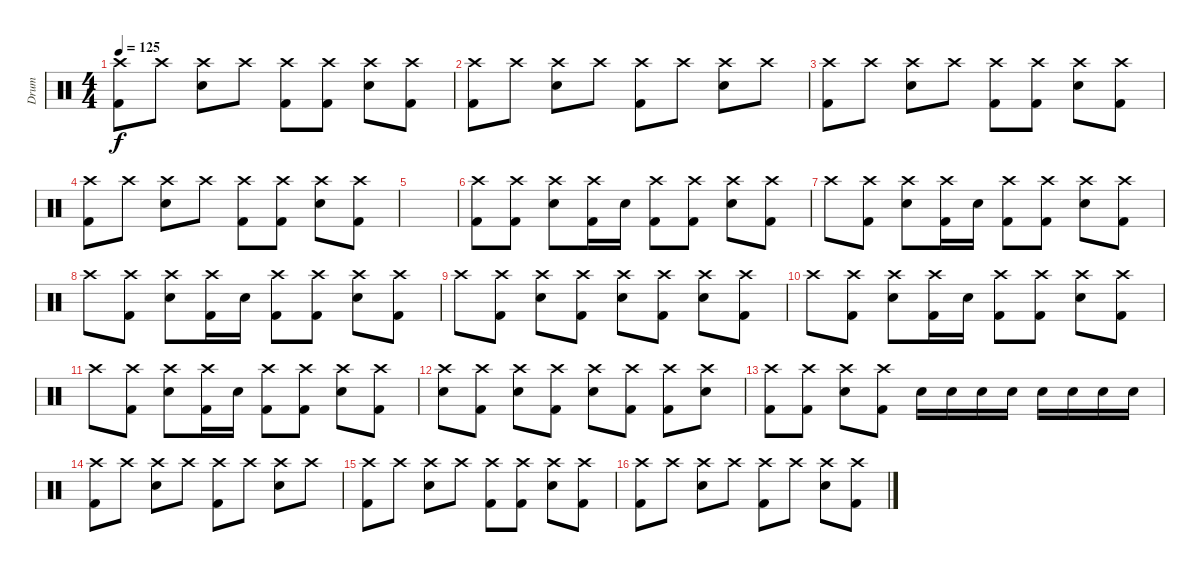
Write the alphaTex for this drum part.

\track ("Drum" "Drum") {instrument percussion}
\staff {score}
\articulation defaults
\ts (4 4)
\tempo 125
\clef neutral
\ks c
("Kick (hit) 2" "Crash high (hit)").8{dy f} "Crash high (hit)".8 ("Electric Snare (hit)" "Crash high (hit)").8 "Crash high (hit)".8 ("Kick (hit) 2" "Crash high (hit)").8 ("Kick (hit) 2" "Crash high (hit)").8 ("Electric Snare (hit)" "Crash high (hit)").8 ("Kick (hit) 2" "Crash high (hit)").8 |
("Kick (hit) 2" "Crash high (hit)").8 "Crash high (hit)".8 ("Electric Snare (hit)" "Crash high (hit)").8 "Crash high (hit)".8 ("Kick (hit) 2" "Crash high (hit)").8 "Crash high (hit)".8 ("Electric Snare (hit)" "Crash high (hit)").8 "Crash high (hit)".8 |
("Kick (hit) 2" "Crash high (hit)").8 "Crash high (hit)".8 ("Electric Snare (hit)" "Crash high (hit)").8 "Crash high (hit)".8 ("Kick (hit) 2" "Crash high (hit)").8 ("Kick (hit) 2" "Crash high (hit)").8 ("Electric Snare (hit)" "Crash high (hit)").8 ("Kick (hit) 2" "Crash high (hit)").8 |
("Kick (hit) 2" "Crash high (hit)").8 "Crash high (hit)".8 ("Electric Snare (hit)" "Crash high (hit)").8 "Crash high (hit)".8 ("Kick (hit) 2" "Crash high (hit)").8 ("Kick (hit) 2" "Crash high (hit)").8 ("Electric Snare (hit)" "Crash high (hit)").8 ("Kick (hit) 2" "Crash high (hit)").8 |
|
("Kick (hit) 2" "Crash high (hit)").8 ("Kick (hit) 2" "Crash high (hit)").8 ("Electric Snare (hit)" "Crash high (hit)").8 ("Kick (hit) 2" "Crash high (hit)").16 "Electric Snare (hit)".16 ("Kick (hit) 2" "Crash high (hit)").8 ("Kick (hit) 2" "Crash high (hit)").8 ("Electric Snare (hit)" "Crash high (hit)").8 ("Kick (hit) 2" "Crash high (hit)").8 |
"Crash high (hit)".8 ("Kick (hit) 2" "Crash high (hit)").8 ("Electric Snare (hit)" "Crash high (hit)").8 ("Kick (hit) 2" "Crash high (hit)").16 "Electric Snare (hit)".16 ("Kick (hit) 2" "Crash high (hit)").8 ("Kick (hit) 2" "Crash high (hit)").8 ("Electric Snare (hit)" "Crash high (hit)").8 ("Kick (hit) 2" "Crash high (hit)").8 |
"Crash high (hit)".8 ("Kick (hit) 2" "Crash high (hit)").8 ("Electric Snare (hit)" "Crash high (hit)").8 ("Kick (hit) 2" "Crash high (hit)").16 "Electric Snare (hit)".16 ("Kick (hit) 2" "Crash high (hit)").8 ("Kick (hit) 2" "Crash high (hit)").8 ("Electric Snare (hit)" "Crash high (hit)").8 ("Kick (hit) 2" "Crash high (hit)").8 |
"Crash high (hit)".8 ("Kick (hit) 2" "Crash high (hit)").8 ("Electric Snare (hit)" "Crash high (hit)").8 ("Kick (hit) 2" "Crash high (hit)").8 ("Electric Snare (hit)" "Crash high (hit)").8 ("Kick (hit) 2" "Crash high (hit)").8 ("Electric Snare (hit)" "Crash high (hit)").8 ("Kick (hit) 2" "Crash high (hit)").8 |
"Crash high (hit)".8 ("Kick (hit) 2" "Crash high (hit)").8 ("Electric Snare (hit)" "Crash high (hit)").8 ("Kick (hit) 2" "Crash high (hit)").16 "Electric Snare (hit)".16 ("Kick (hit) 2" "Crash high (hit)").8 ("Kick (hit) 2" "Crash high (hit)").8 ("Electric Snare (hit)" "Crash high (hit)").8 ("Kick (hit) 2" "Crash high (hit)").8 |
"Crash high (hit)".8 ("Kick (hit) 2" "Crash high (hit)").8 ("Electric Snare (hit)" "Crash high (hit)").8 ("Kick (hit) 2" "Crash high (hit)").16 "Electric Snare (hit)".16 ("Kick (hit) 2" "Crash high (hit)").8 ("Kick (hit) 2" "Crash high (hit)").8 ("Electric Snare (hit)" "Crash high (hit)").8 ("Kick (hit) 2" "Crash high (hit)").8 |
("Electric Snare (hit)" "Crash high (hit)").8 ("Kick (hit) 2" "Crash high (hit)").8 ("Electric Snare (hit)" "Crash high (hit)").8 ("Kick (hit) 2" "Crash high (hit)").8 ("Electric Snare (hit)" "Crash high (hit)").8 ("Kick (hit) 2" "Crash high (hit)").8 ("Kick (hit) 2" "Crash high (hit)").8 ("Electric Snare (hit)" "Crash high (hit)").8 |
("Kick (hit) 2" "Crash high (hit)").8 ("Kick (hit) 2" "Crash high (hit)").8 ("Electric Snare (hit)" "Crash high (hit)").8 ("Kick (hit) 2" "Crash high (hit)").8 "Electric Snare (hit)".16 "Electric Snare (hit)".16 "Electric Snare (hit)".16 "Electric Snare (hit)".16 "Electric Snare (hit)".16 "Electric Snare (hit)".16 "Electric Snare (hit)".16 "Electric Snare (hit)".16 |
("Kick (hit) 2" "Crash high (hit)").8 "Crash high (hit)".8 ("Electric Snare (hit)" "Crash high (hit)").8 "Crash high (hit)".8 ("Kick (hit) 2" "Crash high (hit)").8 "Crash high (hit)".8 ("Electric Snare (hit)" "Crash high (hit)").8 "Crash high (hit)".8 |
("Kick (hit) 2" "Crash high (hit)").8 "Crash high (hit)".8 ("Electric Snare (hit)" "Crash high (hit)").8 "Crash high (hit)".8 ("Kick (hit) 2" "Crash high (hit)").8 ("Kick (hit) 2" "Crash high (hit)").8 ("Electric Snare (hit)" "Crash high (hit)").8 ("Kick (hit) 2" "Crash high (hit)").8 |
("Kick (hit) 2" "Crash high (hit)").8 "Crash high (hit)".8 ("Electric Snare (hit)" "Crash high (hit)").8 "Crash high (hit)".8 ("Kick (hit) 2" "Crash high (hit)").8 "Crash high (hit)".8 ("Electric Snare (hit)" "Crash high (hit)").8 ("Kick (hit) 2" "Crash high (hit)").8
